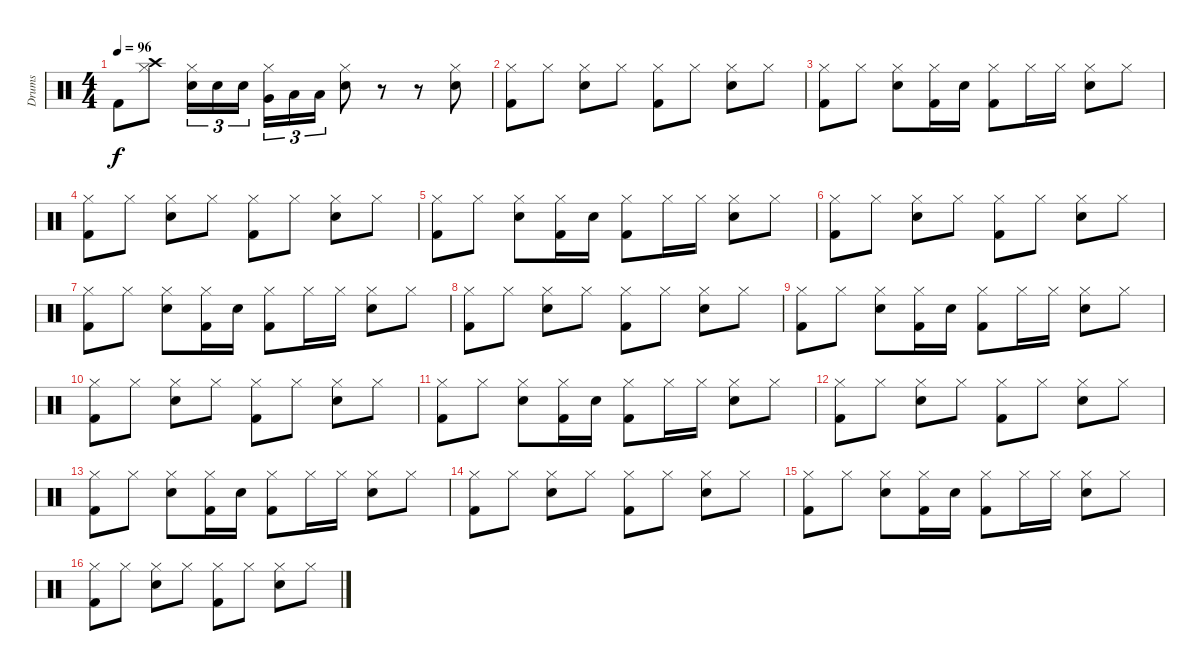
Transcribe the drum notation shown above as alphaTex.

\track ("Drums" "Drums") {instrument percussion}
\staff {score}
\articulation defaults
\ts (4 4)
\tempo 96
\clef neutral
\ks c "Kick (hit) 2".8{dy f}
("Hi-Hat (closed)" "Crash high (hit)").8 ("Snare (hit) 2" "Hi-Hat (closed)").16{tu (3 2)} "Snare (hit) 2".16{tu (3 2)} "Snare (hit) 2".16{tu (3 2)} ("Hi-Hat (closed)" "Very Low Tom (hit)").16{tu (3 2)} "Low Floor Tom (hit)".16{tu (3 2)} "Low Floor Tom (hit)".16{tu (3 2)} ("Snare (hit) 2" "Hi-Hat (closed)").8 r.8 r.8 ("Snare (hit) 2" "Hi-Hat (closed)").8 |
("Kick (hit) 2" "Hi-Hat (closed)").8 "Hi-Hat (closed)".8 ("Snare (hit) 2" "Hi-Hat (closed)").8 "Hi-Hat (closed)".8 ("Kick (hit) 2" "Hi-Hat (closed)").8 "Hi-Hat (closed)".8 ("Snare (hit) 2" "Hi-Hat (closed)").8 "Hi-Hat (closed)".8 |
("Kick (hit) 2" "Hi-Hat (closed)").8 "Hi-Hat (closed)".8 ("Snare (hit) 2" "Hi-Hat (closed)").8 ("Kick (hit) 2" "Hi-Hat (closed)").16 "Snare (hit) 2".16 ("Kick (hit) 2" "Hi-Hat (closed)").8 "Hi-Hat (closed)".16 "Hi-Hat (closed)".16 ("Snare (hit) 2" "Hi-Hat (closed)").8 "Hi-Hat (closed)".8 |
("Kick (hit) 2" "Hi-Hat (closed)").8 "Hi-Hat (closed)".8 ("Snare (hit) 2" "Hi-Hat (closed)").8 "Hi-Hat (closed)".8 ("Kick (hit) 2" "Hi-Hat (closed)").8 "Hi-Hat (closed)".8 ("Snare (hit) 2" "Hi-Hat (closed)").8 "Hi-Hat (closed)".8 |
("Kick (hit) 2" "Hi-Hat (closed)").8 "Hi-Hat (closed)".8 ("Snare (hit) 2" "Hi-Hat (closed)").8 ("Kick (hit) 2" "Hi-Hat (closed)").16 "Snare (hit) 2".16 ("Kick (hit) 2" "Hi-Hat (closed)").8 "Hi-Hat (closed)".16 "Hi-Hat (closed)".16 ("Snare (hit) 2" "Hi-Hat (closed)").8 "Hi-Hat (closed)".8 |
("Kick (hit) 2" "Hi-Hat (closed)").8 "Hi-Hat (closed)".8 ("Snare (hit) 2" "Hi-Hat (closed)").8 "Hi-Hat (closed)".8 ("Kick (hit) 2" "Hi-Hat (closed)").8 "Hi-Hat (closed)".8 ("Snare (hit) 2" "Hi-Hat (closed)").8 "Hi-Hat (closed)".8 |
("Kick (hit) 2" "Hi-Hat (closed)").8 "Hi-Hat (closed)".8 ("Snare (hit) 2" "Hi-Hat (closed)").8 ("Kick (hit) 2" "Hi-Hat (closed)").16 "Snare (hit) 2".16 ("Kick (hit) 2" "Hi-Hat (closed)").8 "Hi-Hat (closed)".16 "Hi-Hat (closed)".16 ("Snare (hit) 2" "Hi-Hat (closed)").8 "Hi-Hat (closed)".8 |
("Kick (hit) 2" "Hi-Hat (closed)").8 "Hi-Hat (closed)".8 ("Snare (hit) 2" "Hi-Hat (closed)").8 "Hi-Hat (closed)".8 ("Kick (hit) 2" "Hi-Hat (closed)").8 "Hi-Hat (closed)".8 ("Snare (hit) 2" "Hi-Hat (closed)").8 "Hi-Hat (closed)".8 |
("Kick (hit) 2" "Hi-Hat (closed)").8 "Hi-Hat (closed)".8 ("Snare (hit) 2" "Hi-Hat (closed)").8 ("Kick (hit) 2" "Hi-Hat (closed)").16 "Snare (hit) 2".16 ("Kick (hit) 2" "Hi-Hat (closed)").8 "Hi-Hat (closed)".16 "Hi-Hat (closed)".16 ("Snare (hit) 2" "Hi-Hat (closed)").8 "Hi-Hat (closed)".8 |
("Kick (hit) 2" "Hi-Hat (closed)").8 "Hi-Hat (closed)".8 ("Snare (hit) 2" "Hi-Hat (closed)").8 "Hi-Hat (closed)".8 ("Kick (hit) 2" "Hi-Hat (closed)").8 "Hi-Hat (closed)".8 ("Snare (hit) 2" "Hi-Hat (closed)").8 "Hi-Hat (closed)".8 |
("Kick (hit) 2" "Hi-Hat (closed)").8 "Hi-Hat (closed)".8 ("Snare (hit) 2" "Hi-Hat (closed)").8 ("Kick (hit) 2" "Hi-Hat (closed)").16 "Snare (hit) 2".16 ("Kick (hit) 2" "Hi-Hat (closed)").8 "Hi-Hat (closed)".16 "Hi-Hat (closed)".16 ("Snare (hit) 2" "Hi-Hat (closed)").8 "Hi-Hat (closed)".8 |
("Kick (hit) 2" "Hi-Hat (closed)").8 "Hi-Hat (closed)".8 ("Snare (hit) 2" "Hi-Hat (closed)").8 "Hi-Hat (closed)".8 ("Kick (hit) 2" "Hi-Hat (closed)").8 "Hi-Hat (closed)".8 ("Snare (hit) 2" "Hi-Hat (closed)").8 "Hi-Hat (closed)".8 |
("Kick (hit) 2" "Hi-Hat (closed)").8 "Hi-Hat (closed)".8 ("Snare (hit) 2" "Hi-Hat (closed)").8 ("Kick (hit) 2" "Hi-Hat (closed)").16 "Snare (hit) 2".16 ("Kick (hit) 2" "Hi-Hat (closed)").8 "Hi-Hat (closed)".16 "Hi-Hat (closed)".16 ("Snare (hit) 2" "Hi-Hat (closed)").8 "Hi-Hat (closed)".8 |
("Kick (hit) 2" "Hi-Hat (closed)").8 "Hi-Hat (closed)".8 ("Snare (hit) 2" "Hi-Hat (closed)").8 "Hi-Hat (closed)".8 ("Kick (hit) 2" "Hi-Hat (closed)").8 "Hi-Hat (closed)".8 ("Snare (hit) 2" "Hi-Hat (closed)").8 "Hi-Hat (closed)".8 |
("Kick (hit) 2" "Hi-Hat (closed)").8 "Hi-Hat (closed)".8 ("Snare (hit) 2" "Hi-Hat (closed)").8 ("Kick (hit) 2" "Hi-Hat (closed)").16 "Snare (hit) 2".16 ("Kick (hit) 2" "Hi-Hat (closed)").8 "Hi-Hat (closed)".16 "Hi-Hat (closed)".16 ("Snare (hit) 2" "Hi-Hat (closed)").8 "Hi-Hat (closed)".8 |
("Kick (hit) 2" "Hi-Hat (closed)").8 "Hi-Hat (closed)".8 ("Snare (hit) 2" "Hi-Hat (closed)").8 "Hi-Hat (closed)".8 ("Kick (hit) 2" "Hi-Hat (closed)").8 "Hi-Hat (closed)".8 ("Snare (hit) 2" "Hi-Hat (closed)").8 "Hi-Hat (closed)".8
